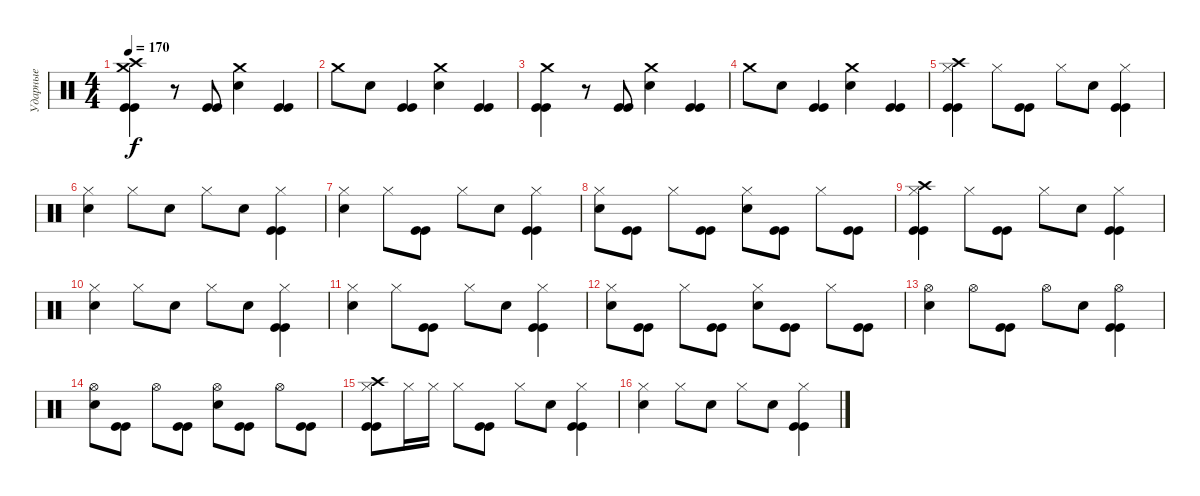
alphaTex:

\track ("Ударные" "Ударные") {instrument percussion}
\staff {score}
\articulation defaults
\ts (4 4)
\tempo 170
\clef neutral
\ks c
("Crash high (hit)" "Crash medium (hit)" "Kick (hit)" "Kick (hit)").4{dy f} r.8 ("Kick (hit)" "Kick (hit)").8 ("Crash medium (hit)" "Electric Snare (hit)").4 ("Kick (hit)" "Kick (hit)").4 |
"Crash medium (hit)".8 "Electric Snare (hit)".8 ("Kick (hit)" "Kick (hit)").4 ("Crash medium (hit)" "Electric Snare (hit)").4 ("Kick (hit)" "Kick (hit)").4 |
("Crash medium (hit)" "Kick (hit)" "Kick (hit)").4 r.8 ("Kick (hit)" "Kick (hit)").8 ("Crash medium (hit)" "Electric Snare (hit)").4 ("Kick (hit)" "Kick (hit)").4 |
"Crash medium (hit)".8 "Electric Snare (hit)".8 ("Kick (hit)" "Kick (hit)").4 ("Crash medium (hit)" "Electric Snare (hit)").4 ("Kick (hit)" "Kick (hit)").4 |
("Crash high (hit)" "Hi-Hat (closed)" "Kick (hit)" "Kick (hit)").4 "Hi-Hat (closed)".8 ("Kick (hit)" "Kick (hit)").8 "Hi-Hat (closed)".8 "Electric Snare (hit)".8 ("Hi-Hat (closed)" "Kick (hit)" "Kick (hit)").4 |
("Hi-Hat (closed)" "Electric Snare (hit)").4 "Hi-Hat (closed)".8 "Electric Snare (hit)".8 "Hi-Hat (closed)".8 "Electric Snare (hit)".8 ("Hi-Hat (closed)" "Kick (hit)" "Kick (hit)").4 |
("Hi-Hat (closed)" "Electric Snare (hit)").4 "Hi-Hat (closed)".8 ("Kick (hit)" "Kick (hit)").8 "Hi-Hat (closed)".8 "Electric Snare (hit)".8 ("Hi-Hat (closed)" "Kick (hit)" "Kick (hit)").4 |
("Hi-Hat (closed)" "Electric Snare (hit)").8 ("Kick (hit)" "Kick (hit)").8 "Hi-Hat (closed)".8 ("Kick (hit)" "Kick (hit)").8 ("Hi-Hat (closed)" "Electric Snare (hit)").8 ("Kick (hit)" "Kick (hit)").8 "Hi-Hat (closed)".8 ("Kick (hit)" "Kick (hit)").8 |
("Crash high (hit)" "Hi-Hat (closed)" "Kick (hit)" "Kick (hit)").4 "Hi-Hat (closed)".8 ("Kick (hit)" "Kick (hit)").8 "Hi-Hat (closed)".8 "Electric Snare (hit)".8 ("Hi-Hat (closed)" "Kick (hit)" "Kick (hit)").4 |
("Hi-Hat (closed)" "Electric Snare (hit)").4 "Hi-Hat (closed)".8 "Electric Snare (hit)".8 "Hi-Hat (closed)".8 "Electric Snare (hit)".8 ("Hi-Hat (closed)" "Kick (hit)" "Kick (hit)").4 |
("Hi-Hat (closed)" "Electric Snare (hit)").4 "Hi-Hat (closed)".8 ("Kick (hit)" "Kick (hit)").8 "Hi-Hat (closed)".8 "Electric Snare (hit)".8 ("Hi-Hat (closed)" "Kick (hit)" "Kick (hit)").4 |
("Hi-Hat (closed)" "Electric Snare (hit)").8 ("Kick (hit)" "Kick (hit)").8 "Hi-Hat (closed)".8 ("Kick (hit)" "Kick (hit)").8 ("Hi-Hat (closed)" "Electric Snare (hit)").8 ("Kick (hit)" "Kick (hit)").8 "Hi-Hat (closed)".8 ("Kick (hit)" "Kick (hit)").8 |
("Hi-Hat (open)" "Electric Snare (hit)").4 "Hi-Hat (open)".8 ("Kick (hit)" "Kick (hit)").8 "Hi-Hat (open)".8 "Electric Snare (hit)".8 ("Hi-Hat (open)" "Kick (hit)" "Kick (hit)").4 |
("Hi-Hat (open)" "Electric Snare (hit)").8 ("Kick (hit)" "Kick (hit)").8 "Hi-Hat (open)".8 ("Kick (hit)" "Kick (hit)").8 ("Hi-Hat (open)" "Electric Snare (hit)").8 ("Kick (hit)" "Kick (hit)").8 "Hi-Hat (open)".8 ("Kick (hit)" "Kick (hit)").8 |
("Crash high (hit)" "Hi-Hat (closed)" "Kick (hit)" "Kick (hit)").8 "Hi-Hat (closed)".16 "Hi-Hat (closed)".16 "Hi-Hat (closed)".8 ("Kick (hit)" "Kick (hit)").8 "Hi-Hat (closed)".8 "Electric Snare (hit)".8 ("Hi-Hat (closed)" "Kick (hit)" "Kick (hit)").4 |
("Hi-Hat (closed)" "Electric Snare (hit)").4 "Hi-Hat (closed)".8 "Electric Snare (hit)".8 "Hi-Hat (closed)".8 "Electric Snare (hit)".8 ("Hi-Hat (closed)" "Kick (hit)" "Kick (hit)").4
